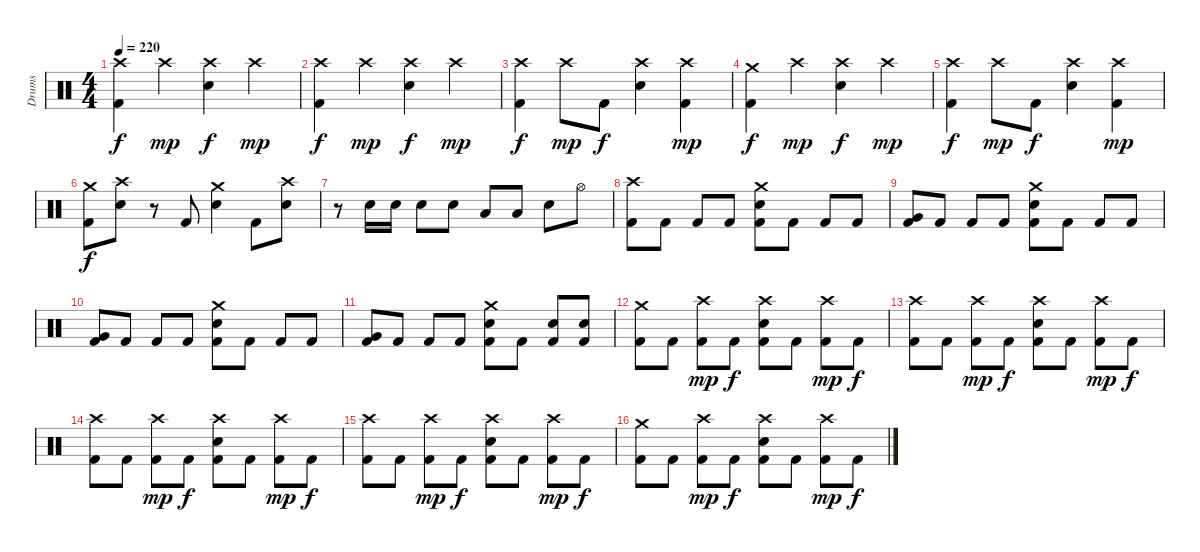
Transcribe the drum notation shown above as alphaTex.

\track ("Drums" "Drums") {instrument percussion}
\staff {score}
\articulation defaults
\ts (4 4)
\tempo 220
\clef neutral
\ks c
("Crash high (hit)" "Kick (hit) 2").4{dy f} "Crash high (hit)".4{dy mp} ("Electric Snare (hit)" "Crash high (hit)").4{dy f} "Crash high (hit)".4{dy mp} |
("Crash high (hit)" "Kick (hit) 2").4{dy f} "Crash high (hit)".4{dy mp} ("Electric Snare (hit)" "Crash high (hit)").4{dy f} "Crash high (hit)".4{dy mp} |
("Crash high (hit)" "Kick (hit) 2").4{dy f} "Crash high (hit)".8{dy mp} "Kick (hit) 2".8{dy f} ("Electric Snare (hit)" "Crash high (hit)").4 ("Kick (hit) 2" "Crash high (hit)").4{dy mp} |
("Crash medium (hit)" "Kick (hit) 2").4{dy f} "Crash high (hit)".4{dy mp} ("Electric Snare (hit)" "Crash high (hit)").4{dy f} "Crash high (hit)".4{dy mp} |
("Crash high (hit)" "Kick (hit) 2").4{dy f} "Crash high (hit)".8{dy mp} "Kick (hit) 2".8{dy f} ("Electric Snare (hit)" "Crash high (hit)").4 ("Kick (hit) 2" "Crash high (hit)").4{dy mp} |
("Crash medium (hit)" "Kick (hit) 2").8{dy f} ("Crash high (hit)" "Electric Snare (hit)").8 r.8 "Kick (hit) 2".8 ("Electric Snare (hit)" "Crash medium (hit)").4 "Kick (hit) 2".8 ("Electric Snare (hit)" "Crash high (hit)").8 |
r.8 "Electric Snare (hit)".16 "Electric Snare (hit)".16 "Electric Snare (hit)".8 "Electric Snare (hit)".8 "Low Tom (hit)".8 "Low Tom (hit)".8 "Electric Snare (hit)".8 "Hi-Hat (open)".8 |
("Crash high (hit)" "Kick (hit) 2").8 "Kick (hit) 2".8 "Kick (hit) 2".8 "Kick (hit) 2".8 ("Crash medium (hit)" "Electric Snare (hit)" "Kick (hit) 2").8 "Kick (hit) 2".8 "Kick (hit) 2".8 "Kick (hit) 2".8 |
("Kick (hit) 2" "Very Low Tom (hit)").8 "Kick (hit) 2".8 "Kick (hit) 2".8 "Kick (hit) 2".8 ("Kick (hit) 2" "Electric Snare (hit)" "Crash medium (hit)").8 "Kick (hit) 2".8 "Kick (hit) 2".8 "Kick (hit) 2".8 |
("Kick (hit) 2" "Very Low Tom (hit)").8 "Kick (hit) 2".8 "Kick (hit) 2".8 "Kick (hit) 2".8 ("Kick (hit) 2" "Electric Snare (hit)" "Crash medium (hit)").8 "Kick (hit) 2".8 "Kick (hit) 2".8 "Kick (hit) 2".8 |
("Kick (hit) 2" "Very Low Tom (hit)").8 "Kick (hit) 2".8 "Kick (hit) 2".8 "Kick (hit) 2".8 ("Kick (hit) 2" "Electric Snare (hit)" "Crash medium (hit)").8 "Kick (hit) 2".8 ("Kick (hit) 2" "Electric Snare (hit)").8 ("Kick (hit) 2" "Electric Snare (hit)").8 |
("Crash medium (hit)" "Kick (hit) 2").8 "Kick (hit) 2".8 ("Crash high (hit)" "Kick (hit) 2").8{dy mp} "Kick (hit) 2".8{dy f} ("Crash high (hit)" "Electric Snare (hit)" "Kick (hit) 2").8 "Kick (hit) 2".8 ("Crash high (hit)" "Kick (hit) 2").8{dy mp} "Kick (hit) 2".8{dy f} |
("Crash high (hit)" "Kick (hit) 2").8 "Kick (hit) 2".8 ("Crash high (hit)" "Kick (hit) 2").8{dy mp} "Kick (hit) 2".8{dy f} ("Crash high (hit)" "Electric Snare (hit)" "Kick (hit) 2").8 "Kick (hit) 2".8 ("Crash high (hit)" "Kick (hit) 2").8{dy mp} "Kick (hit) 2".8{dy f} |
("Crash high (hit)" "Kick (hit) 2").8 "Kick (hit) 2".8 ("Crash high (hit)" "Kick (hit) 2").8{dy mp} "Kick (hit) 2".8{dy f} ("Crash high (hit)" "Electric Snare (hit)" "Kick (hit) 2").8 "Kick (hit) 2".8 ("Crash high (hit)" "Kick (hit) 2").8{dy mp} "Kick (hit) 2".8{dy f} |
("Crash high (hit)" "Kick (hit) 2").8 "Kick (hit) 2".8 ("Crash high (hit)" "Kick (hit) 2").8{dy mp} "Kick (hit) 2".8{dy f} ("Crash high (hit)" "Electric Snare (hit)" "Kick (hit) 2").8 "Kick (hit) 2".8 ("Crash high (hit)" "Kick (hit) 2").8{dy mp} "Kick (hit) 2".8{dy f} |
("Crash medium (hit)" "Kick (hit) 2").8 "Kick (hit) 2".8 ("Crash high (hit)" "Kick (hit) 2").8{dy mp} "Kick (hit) 2".8{dy f} ("Crash high (hit)" "Electric Snare (hit)" "Kick (hit) 2").8 "Kick (hit) 2".8 ("Crash high (hit)" "Kick (hit) 2").8{dy mp} "Kick (hit) 2".8{dy f}
